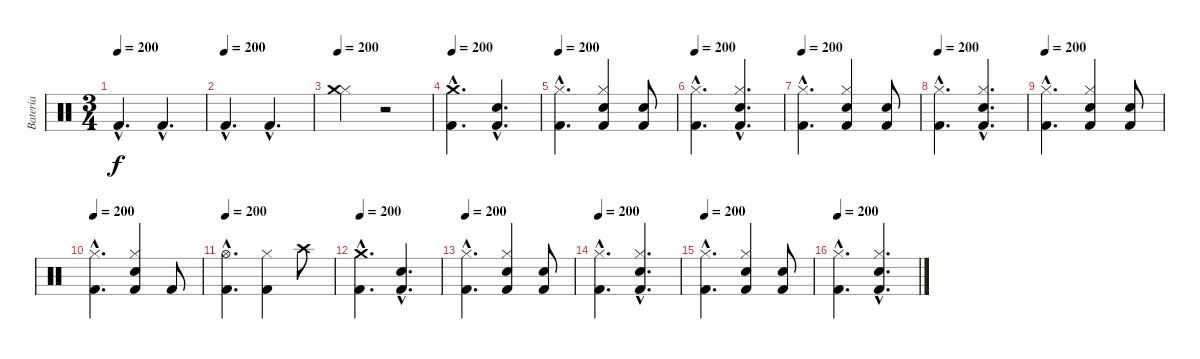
\track ("Bateria" "Bateria") {instrument percussion}
\staff {score}
\articulation defaults
\ts (3 4)
\tempo 200
\clef neutral
\ks c "Kick (hit) 2"{hac}.4{d dy f} "Kick (hit) 2"{hac}.4{d}
|
\tempo (200)
"Kick (hit) 2"{hac}.4{d} "Kick (hit) 2"{hac}.4{d} |
\tempo 120
\tempo 200
("Hi-Hat (closed)" "Crash medium (hit)").4 r.2 |
\tempo 200
("Crash medium (hit)"{hac} "Kick (hit) 2"{hac}).4{d volume 12} ("Electric Snare (hit)"{hac} "Kick (hit) 2"{hac}).4{d} |
\tempo 200
("Hi-Hat (closed)"{hac} "Kick (hit) 2"{hac}).4{d} ("Hi-Hat (closed)" "Electric Snare (hit)" "Kick (hit) 2").4 ("Electric Snare (hit)" "Kick (hit) 2").8 |
\tempo 200
("Hi-Hat (closed)"{hac} "Kick (hit) 2"{hac}).4{d} ("Hi-Hat (closed)"{hac} "Electric Snare (hit)"{hac} "Kick (hit) 2"{hac}).4{d} |
\tempo 200
("Hi-Hat (closed)"{hac} "Kick (hit) 2"{hac}).4{d} ("Hi-Hat (closed)" "Electric Snare (hit)" "Kick (hit) 2").4 ("Electric Snare (hit)" "Kick (hit) 2").8 |
\tempo 200
("Hi-Hat (closed)"{hac} "Kick (hit) 2"{hac}).4{d} ("Hi-Hat (closed)"{hac} "Electric Snare (hit)"{hac} "Kick (hit) 2"{hac}).4{d} |
\tempo 200
("Hi-Hat (closed)"{hac} "Kick (hit) 2"{hac}).4{d} ("Hi-Hat (closed)" "Electric Snare (hit)" "Kick (hit) 2").4 ("Electric Snare (hit)" "Kick (hit) 2").8 |
\tempo 200
("Hi-Hat (closed)"{hac} "Kick (hit) 2"{hac}).4{d} ("Hi-Hat (closed)" "Electric Snare (hit)" "Kick (hit) 2").4 "Kick (hit) 2".8 |
\tempo 200
("Hi-Hat (open)"{hac} "Kick (hit) 2"{hac}).4{d} ("Hi-Hat (closed)" "Kick (hit) 2").4 "Crash high (hit)".8 |
\tempo 200
("Crash medium (hit)"{hac} "Kick (hit) 2"{hac}).4{d} ("Electric Snare (hit)"{hac} "Kick (hit) 2"{hac}).4{d} |
\tempo 200
("Hi-Hat (closed)"{hac} "Kick (hit) 2"{hac}).4{d} ("Hi-Hat (closed)" "Electric Snare (hit)" "Kick (hit) 2").4 ("Electric Snare (hit)" "Kick (hit) 2").8 |
\tempo 200
("Hi-Hat (closed)"{hac} "Kick (hit) 2"{hac}).4{d} ("Hi-Hat (closed)"{hac} "Electric Snare (hit)"{hac} "Kick (hit) 2"{hac}).4{d} |
\tempo 200
("Hi-Hat (closed)"{hac} "Kick (hit) 2"{hac}).4{d} ("Hi-Hat (closed)" "Electric Snare (hit)" "Kick (hit) 2").4 ("Electric Snare (hit)" "Kick (hit) 2").8 |
\tempo 200
("Hi-Hat (closed)"{hac} "Kick (hit) 2"{hac}).4{d} ("Hi-Hat (closed)"{hac} "Electric Snare (hit)"{hac} "Kick (hit) 2"{hac}).4{d}
